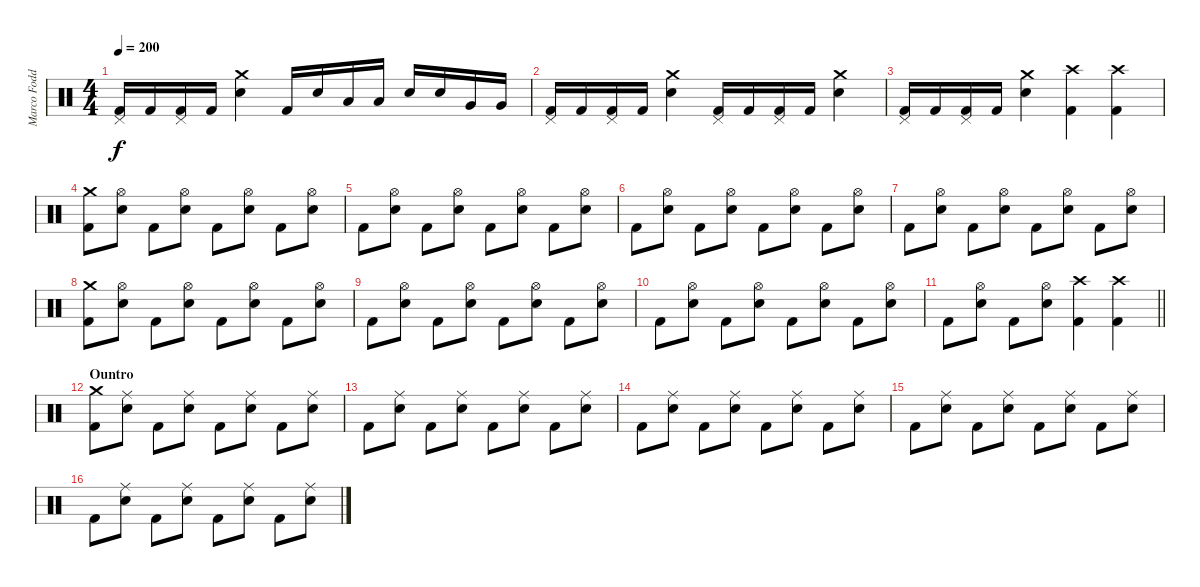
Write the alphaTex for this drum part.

\track ("Marco Foddis " "Marco Fodd") {instrument percussion}
\staff {score}
\articulation defaults
\ts (4 4)
\tempo 200
\clef neutral
\ks c
("Pedal Hi-Hat (hit)" "Kick (hit) 2").16{dy f} "Kick (hit) 2".16 ("Pedal Hi-Hat (hit)" "Kick (hit) 2").16 "Kick (hit) 2".16 ("Crash medium (hit)" "Electric Snare (hit)").4 "Kick (hit) 2".16 "Electric Snare (hit)".16 "Low Tom (hit)".16 "Low Tom (hit)".16 "Electric Snare (hit)".16 "Electric Snare (hit)".16 "Very Low Tom (hit)".16 "Very Low Tom (hit)".16 |
("Pedal Hi-Hat (hit)" "Kick (hit) 2").16 "Kick (hit) 2".16 ("Pedal Hi-Hat (hit)" "Kick (hit) 2").16 "Kick (hit) 2".16 ("Crash medium (hit)" "Electric Snare (hit)").4 ("Pedal Hi-Hat (hit)" "Kick (hit) 2").16 "Kick (hit) 2".16 ("Pedal Hi-Hat (hit)" "Kick (hit) 2").16 "Kick (hit) 2".16 ("Crash medium (hit)" "Electric Snare (hit)").4 |
("Pedal Hi-Hat (hit)" "Kick (hit) 2").16 "Kick (hit) 2".16 ("Pedal Hi-Hat (hit)" "Kick (hit) 2").16 "Kick (hit) 2".16 ("Crash medium (hit)" "Electric Snare (hit)").4 ("Crash high (hit)" "Kick (hit) 2").4 ("Crash high (hit)" "Kick (hit) 2").4 |
("Crash medium (hit)" "Kick (hit) 2").8 ("Hi-Hat (open)" "Electric Snare (hit)").8 "Kick (hit) 2".8 ("Hi-Hat (open)" "Electric Snare (hit)").8 "Kick (hit) 2".8 ("Hi-Hat (open)" "Electric Snare (hit)").8 "Kick (hit) 2".8 ("Hi-Hat (open)" "Electric Snare (hit)").8 |
"Kick (hit) 2".8 ("Hi-Hat (open)" "Electric Snare (hit)").8 "Kick (hit) 2".8 ("Hi-Hat (open)" "Electric Snare (hit)").8 "Kick (hit) 2".8 ("Hi-Hat (open)" "Electric Snare (hit)").8 "Kick (hit) 2".8 ("Hi-Hat (open)" "Electric Snare (hit)").8 |
"Kick (hit) 2".8 ("Hi-Hat (open)" "Electric Snare (hit)").8 "Kick (hit) 2".8 ("Hi-Hat (open)" "Electric Snare (hit)").8 "Kick (hit) 2".8 ("Hi-Hat (open)" "Electric Snare (hit)").8 "Kick (hit) 2".8 ("Hi-Hat (open)" "Electric Snare (hit)").8 |
"Kick (hit) 2".8 ("Hi-Hat (open)" "Electric Snare (hit)").8 "Kick (hit) 2".8 ("Hi-Hat (open)" "Electric Snare (hit)").8 "Kick (hit) 2".8 ("Hi-Hat (open)" "Electric Snare (hit)").8 "Kick (hit) 2".8 ("Hi-Hat (open)" "Electric Snare (hit)").8 |
("Crash medium (hit)" "Kick (hit) 2").8 ("Hi-Hat (open)" "Electric Snare (hit)").8 "Kick (hit) 2".8 ("Hi-Hat (open)" "Electric Snare (hit)").8 "Kick (hit) 2".8 ("Hi-Hat (open)" "Electric Snare (hit)").8 "Kick (hit) 2".8 ("Hi-Hat (open)" "Electric Snare (hit)").8 |
"Kick (hit) 2".8 ("Hi-Hat (open)" "Electric Snare (hit)").8 "Kick (hit) 2".8 ("Hi-Hat (open)" "Electric Snare (hit)").8 "Kick (hit) 2".8 ("Hi-Hat (open)" "Electric Snare (hit)").8 "Kick (hit) 2".8 ("Hi-Hat (open)" "Electric Snare (hit)").8 |
"Kick (hit) 2".8 ("Hi-Hat (open)" "Electric Snare (hit)").8 "Kick (hit) 2".8 ("Hi-Hat (open)" "Electric Snare (hit)").8 "Kick (hit) 2".8 ("Hi-Hat (open)" "Electric Snare (hit)").8 "Kick (hit) 2".8 ("Hi-Hat (open)" "Electric Snare (hit)").8 |
\barLineRight lightlight "Kick (hit) 2".8
("Hi-Hat (open)" "Electric Snare (hit)").8 "Kick (hit) 2".8 ("Hi-Hat (open)" "Electric Snare (hit)").8 ("Crash high (hit)" "Kick (hit) 2").4 ("Crash high (hit)" "Kick (hit) 2").4 |
\section ("" "Ountro")
("Crash medium (hit)" "Kick (hit) 2").8 ("Ride (middle)" "Electric Snare (hit)").8 "Kick (hit) 2".8 ("Ride (middle)" "Electric Snare (hit)").8 "Kick (hit) 2".8 ("Ride (middle)" "Electric Snare (hit)").8 "Kick (hit) 2".8 ("Ride (middle)" "Electric Snare (hit)").8 |
"Kick (hit) 2".8 ("Ride (middle)" "Electric Snare (hit)").8 "Kick (hit) 2".8 ("Ride (middle)" "Electric Snare (hit)").8 "Kick (hit) 2".8 ("Ride (middle)" "Electric Snare (hit)").8 "Kick (hit) 2".8 ("Ride (middle)" "Electric Snare (hit)").8 |
"Kick (hit) 2".8 ("Ride (middle)" "Electric Snare (hit)").8 "Kick (hit) 2".8 ("Ride (middle)" "Electric Snare (hit)").8 "Kick (hit) 2".8 ("Ride (middle)" "Electric Snare (hit)").8 "Kick (hit) 2".8 ("Ride (middle)" "Electric Snare (hit)").8 |
"Kick (hit) 2".8 ("Ride (middle)" "Electric Snare (hit)").8 "Kick (hit) 2".8 ("Ride (middle)" "Electric Snare (hit)").8 "Kick (hit) 2".8 ("Ride (middle)" "Electric Snare (hit)").8 "Kick (hit) 2".8 ("Ride (middle)" "Electric Snare (hit)").8 |
"Kick (hit) 2".8 ("Ride (middle)" "Electric Snare (hit)").8 "Kick (hit) 2".8 ("Ride (middle)" "Electric Snare (hit)").8 "Kick (hit) 2".8 ("Ride (middle)" "Electric Snare (hit)").8 "Kick (hit) 2".8 ("Ride (middle)" "Electric Snare (hit)").8
